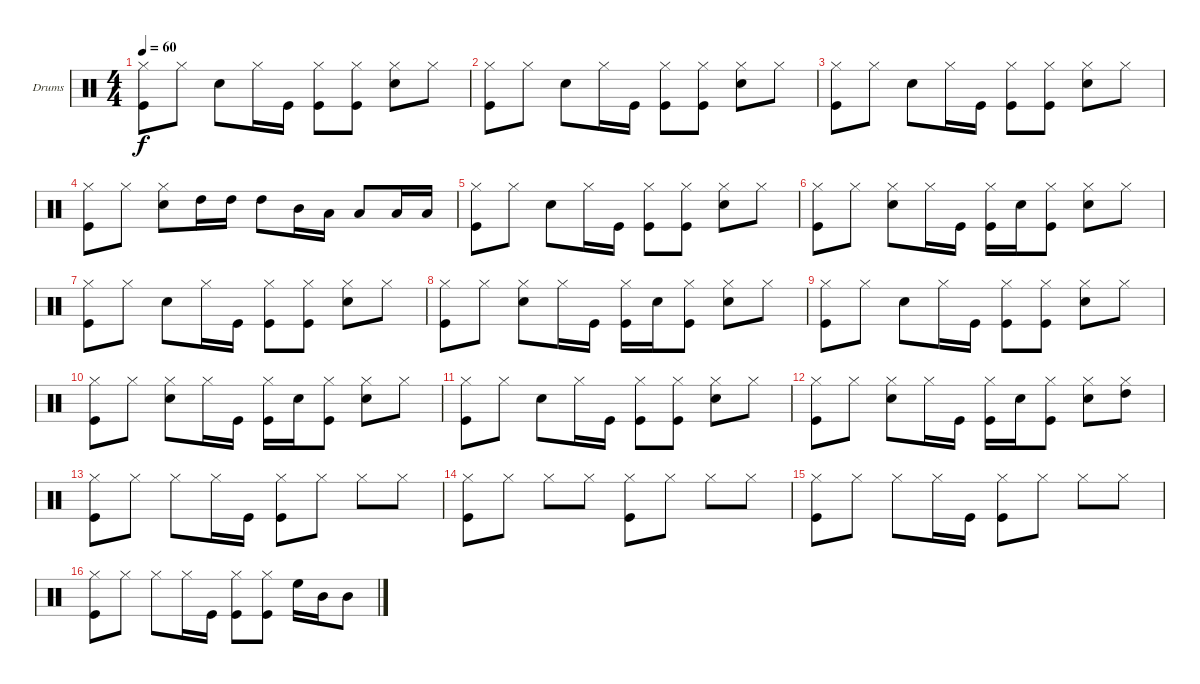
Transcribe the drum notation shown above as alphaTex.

\defaultSystemsLayout 4
\bracketExtendMode groupsimilarinstruments
\firstSystemTrackNameOrientation horizontal
\otherSystemsTrackNameOrientation horizontal
\track ("Drumkit" "Drums") {instrument percussion}
\staff {score}
\articulation defaults
\ts (4 4)
\tempo 60
\clef neutral
\scale
0.333333
\ks c
("Hi-Hat (closed)" "Kick (hit)").8{dy f} "Hi-Hat (closed)".8 "Snare (hit) 2".8 "Hi-Hat (closed)".16 "Kick (hit)".16 ("Hi-Hat (closed)" "Kick (hit)").8 ("Hi-Hat (closed)" "Kick (hit)").8 ("Hi-Hat (closed)" "Snare (hit) 2").8 "Hi-Hat (closed)".8 |
\scale
0.333333 ("Hi-Hat (closed)" "Kick (hit)").8 "Hi-Hat (closed)".8 "Snare (hit) 2".8 "Hi-Hat (closed)".16 "Kick (hit)".16 ("Hi-Hat (closed)" "Kick (hit)").8 ("Hi-Hat (closed)" "Kick (hit)").8 ("Hi-Hat (closed)" "Snare (hit) 2").8 "Hi-Hat (closed)".8 |
\scale
0.333333 ("Hi-Hat (closed)" "Kick (hit)").8 "Hi-Hat (closed)".8 "Snare (hit) 2".8 "Hi-Hat (closed)".16 "Kick (hit)".16 ("Hi-Hat (closed)" "Kick (hit)").8 ("Hi-Hat (closed)" "Kick (hit)").8 ("Hi-Hat (closed)" "Snare (hit) 2").8 "Hi-Hat (closed)".8 |
\scale
0.333333 ("Hi-Hat (closed)" "Kick (hit)").8 "Hi-Hat (closed)".8 ("Hi-Hat (closed)" "Snare (hit) 2").8 "High Tom (hit)".16 "High Tom (hit)".16 "High Tom (hit)".8 "Mid Tom (hit)".16 "Low Tom (hit)".16 "Low Tom (hit)".8 "Low Tom (hit)".16 "Low Tom (hit)".16 |
\scale
0.333333 ("Hi-Hat (closed)" "Kick (hit)").8 "Hi-Hat (closed)".8 "Snare (hit) 2".8 "Hi-Hat (closed)".16 "Kick (hit)".16 ("Hi-Hat (closed)" "Kick (hit)").8 ("Hi-Hat (closed)" "Kick (hit)").8 ("Hi-Hat (closed)" "Snare (hit) 2").8 "Hi-Hat (closed)".8 |
\scale
0.333333 ("Hi-Hat (closed)" "Kick (hit)").8 "Hi-Hat (closed)".8 ("Hi-Hat (closed)" "Snare (hit) 2").8 "Hi-Hat (closed)".16 "Kick (hit)".16 ("Hi-Hat (closed)" "Kick (hit)").16 "Snare (hit) 2".16 ("Hi-Hat (closed)" "Kick (hit)").8 ("Hi-Hat (closed)" "Snare (hit) 2").8 "Hi-Hat (closed)".8 |
\scale
0.333333 ("Hi-Hat (closed)" "Kick (hit)").8 "Hi-Hat (closed)".8 "Snare (hit) 2".8 "Hi-Hat (closed)".16 "Kick (hit)".16 ("Hi-Hat (closed)" "Kick (hit)").8 ("Hi-Hat (closed)" "Kick (hit)").8 ("Hi-Hat (closed)" "Snare (hit) 2").8 "Hi-Hat (closed)".8 |
\scale
0.333333 ("Hi-Hat (closed)" "Kick (hit)").8 "Hi-Hat (closed)".8 ("Hi-Hat (closed)" "Snare (hit) 2").8 "Hi-Hat (closed)".16 "Kick (hit)".16 ("Hi-Hat (closed)" "Kick (hit)").16 "Snare (hit) 2".16 ("Hi-Hat (closed)" "Kick (hit)").8 ("Hi-Hat (closed)" "Snare (hit) 2").8 "Hi-Hat (closed)".8 |
\scale
0.333333 ("Hi-Hat (closed)" "Kick (hit)").8 "Hi-Hat (closed)".8 "Snare (hit) 2".8 "Hi-Hat (closed)".16 "Kick (hit)".16 ("Hi-Hat (closed)" "Kick (hit)").8 ("Hi-Hat (closed)" "Kick (hit)").8 ("Hi-Hat (closed)" "Snare (hit) 2").8 "Hi-Hat (closed)".8 |
\scale
0.333333 ("Hi-Hat (closed)" "Kick (hit)").8 "Hi-Hat (closed)".8 ("Hi-Hat (closed)" "Snare (hit) 2").8 "Hi-Hat (closed)".16 "Kick (hit)".16 ("Hi-Hat (closed)" "Kick (hit)").16 "Snare (hit) 2".16 ("Hi-Hat (closed)" "Kick (hit)").8 ("Hi-Hat (closed)" "Snare (hit) 2").8 "Hi-Hat (closed)".8 |
\scale
0.333333 ("Hi-Hat (closed)" "Kick (hit)").8 "Hi-Hat (closed)".8 "Snare (hit) 2".8 "Hi-Hat (closed)".16 "Kick (hit)".16 ("Hi-Hat (closed)" "Kick (hit)").8 ("Hi-Hat (closed)" "Kick (hit)").8 ("Hi-Hat (closed)" "Snare (hit) 2").8 "Hi-Hat (closed)".8 |
\scale
0.333333 ("Hi-Hat (closed)" "Kick (hit)").8 "Hi-Hat (closed)".8 ("Hi-Hat (closed)" "Snare (hit) 2").8 "Hi-Hat (closed)".16 "Kick (hit)".16 ("Hi-Hat (closed)" "Kick (hit)").16 "Snare (hit) 2".16 ("Hi-Hat (closed)" "Kick (hit)").8 ("Hi-Hat (closed)" "Snare (hit) 2").8 ("Hi-Hat (closed)" "High Tom (hit)").8 |
\scale
0.333333 ("Hi-Hat (closed)" "Kick (hit)").8 "Hi-Hat (closed)".8 "Hi-Hat (closed)".8 "Hi-Hat (closed)".16 "Kick (hit)".16 ("Hi-Hat (closed)" "Kick (hit)").8 "Hi-Hat (closed)".8 "Hi-Hat (closed)".8 "Hi-Hat (closed)".8 |
\scale
0.333333 ("Hi-Hat (closed)" "Kick (hit)").8 "Hi-Hat (closed)".8 "Hi-Hat (closed)".8 "Hi-Hat (closed)".8 ("Hi-Hat (closed)" "Kick (hit)").8 "Hi-Hat (closed)".8 "Hi-Hat (closed)".8 "Hi-Hat (closed)".8 |
\scale
0.333333 ("Hi-Hat (closed)" "Kick (hit)").8 "Hi-Hat (closed)".8 "Hi-Hat (closed)".8 "Hi-Hat (closed)".16 "Kick (hit)".16 ("Hi-Hat (closed)" "Kick (hit)").8 "Hi-Hat (closed)".8 "Hi-Hat (closed)".8 "Hi-Hat (closed)".8 |
\scale
0.333333 ("Hi-Hat (closed)" "Kick (hit)").8 "Hi-Hat (closed)".8 "Hi-Hat (closed)".8 "Hi-Hat (closed)".16 "Kick (hit)".16 ("Hi-Hat (closed)" "Kick (hit)").8 ("Hi-Hat (closed)" "Kick (hit)").8 "High Floor Tom (hit)".16 "Mid Tom (hit)".16 "Mid Tom (hit)".8
